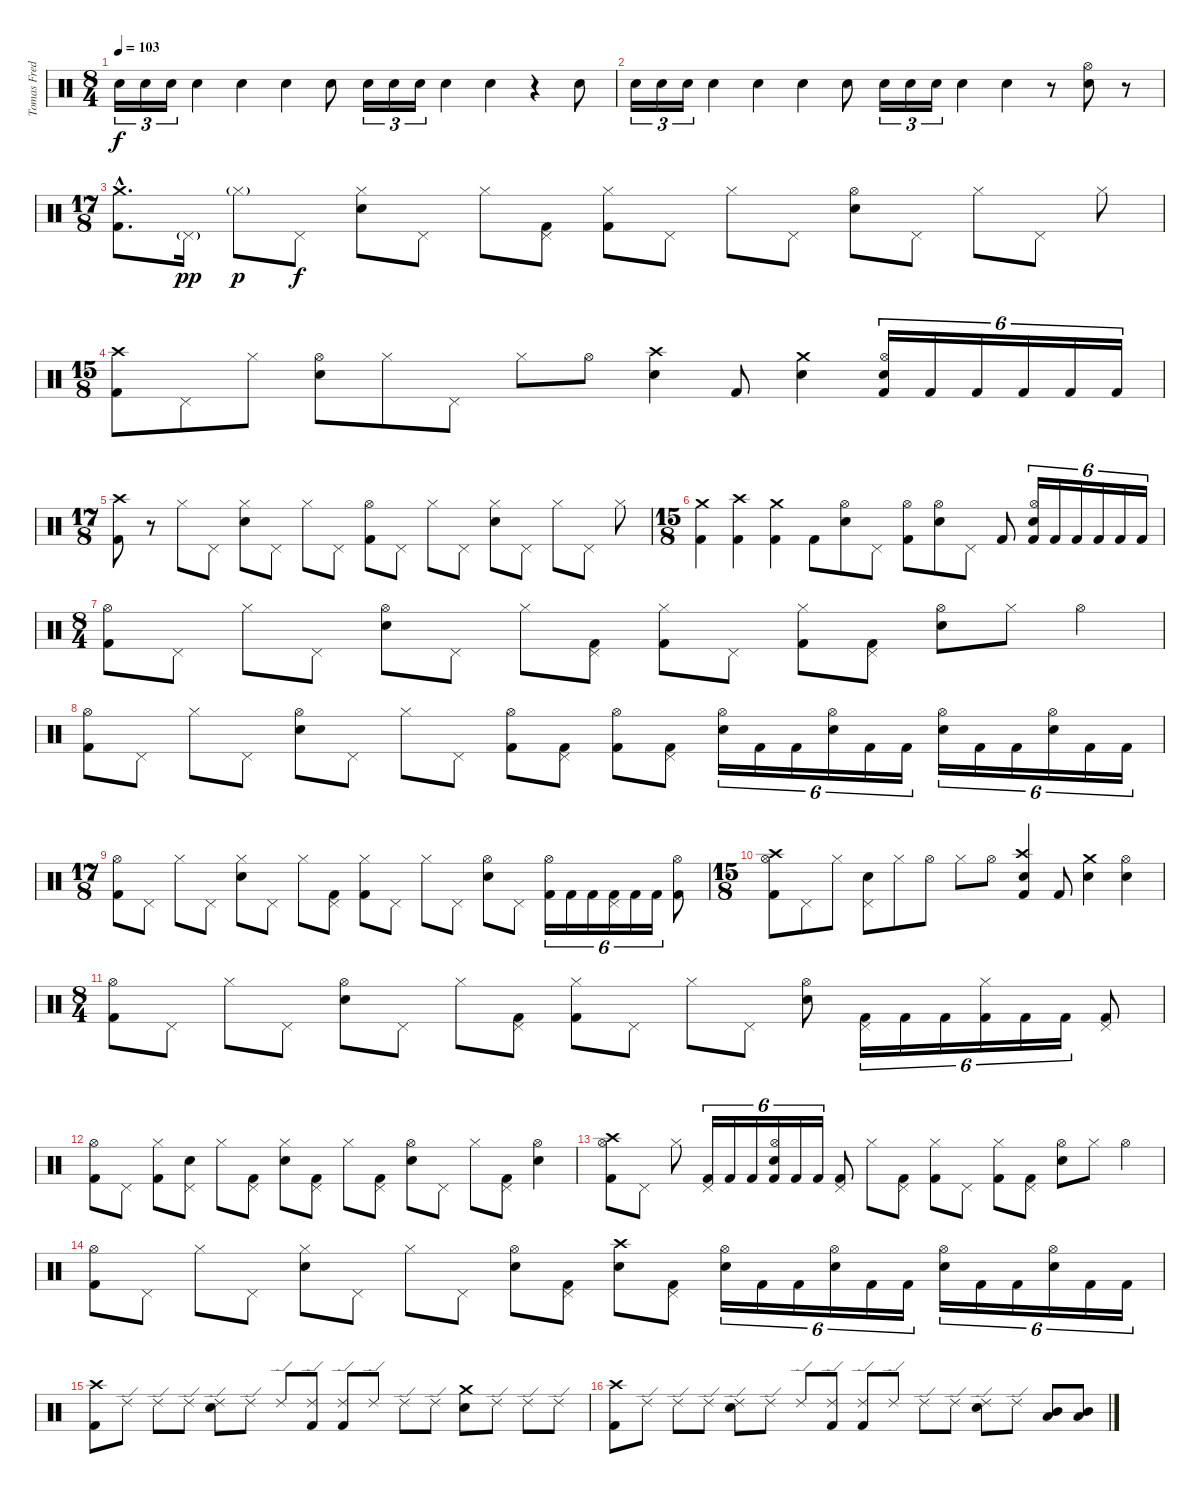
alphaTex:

\track ("Tomas Fredén - drums  " "Tomas Fred") {instrument percussion}
\staff {score}
\articulation defaults
\ts (8 4)
\tempo 103
\clef neutral
\ks c "Snare (hit) 2".16{tu (3 2) dy f} "Snare (hit) 2".16{tu (3 2)} "Snare (hit) 2".16{tu (3 2)} "Snare (hit) 2".4 "Snare (hit) 2".4 "Snare (hit) 2".4 "Snare (hit) 2".8 "Snare (hit) 2".16{tu (3 2)} "Snare (hit) 2".16{tu (3 2)} "Snare (hit) 2".16{tu (3 2)} "Snare (hit) 2".4 "Snare (hit) 2".4
r.4 "Snare (hit) 2".8 |
"Snare (hit) 2".16{tu (3 2)} "Snare (hit) 2".16{tu (3 2)} "Snare (hit) 2".16{tu (3 2)} "Snare (hit) 2".4 "Snare (hit) 2".4 "Snare (hit) 2".4 "Snare (hit) 2".8 "Snare (hit) 2".16{tu (3 2)} "Snare (hit) 2".16{tu (3 2)} "Snare (hit) 2".16{tu (3 2)} "Snare (hit) 2".4 "Snare (hit) 2".4 r.8 ("Hi-Hat (open)" "Snare (hit) 2").8 r.8 |
\ts (17 8)
("Crash medium (hit)"{hac} "Kick (hit) 2"{hac}).8{d} "Pedal Hi-Hat (hit)"{g}.16{dy pp} "Hi-Hat (closed)"{g}.8{dy p} "Pedal Hi-Hat (hit)".8{dy f} ("Hi-Hat (closed)" "Snare (hit) 2").8 "Pedal Hi-Hat (hit)".8 "Hi-Hat (closed)".8 ("Pedal Hi-Hat (hit)" "Kick (hit) 2").8 ("Hi-Hat (closed)" "Kick (hit) 2").8 "Pedal Hi-Hat (hit)".8 "Hi-Hat (closed)".8 "Pedal Hi-Hat (hit)".8 ("Hi-Hat (open)" "Snare (hit) 2").8 "Pedal Hi-Hat (hit)".8 "Hi-Hat (closed)".8 "Pedal Hi-Hat (hit)".8 "Hi-Hat (closed)".8 |
\ts (15 8)
("Crash high (hit)" "Kick (hit) 2").8 "Pedal Hi-Hat (hit)".8 "Hi-Hat (closed)".8 ("Hi-Hat (open)" "Snare (hit) 2").8 "Hi-Hat (closed)".8 "Pedal Hi-Hat (hit)".8 "Hi-Hat (closed)".8 "Hi-Hat (open)".8 ("Crash high (hit)" "Snare (hit) 2").4 "Kick (hit) 2".8 ("Crash medium (hit)" "Electric Snare (hit)").4 ("Hi-Hat (open)" "Snare (hit) 2" "Kick (hit) 2").16{tu (6 4)} "Kick (hit) 2".16{tu (6 4)} "Kick (hit) 2".16{tu (6 4)} "Kick (hit) 2".16{tu (6 4)} "Kick (hit) 2".16{tu (6 4)} "Kick (hit) 2".16{tu (6 4)} |
\ts (17 8)
("Crash high (hit)" "Kick (hit) 2").8 r.8 "Hi-Hat (closed)".8 "Pedal Hi-Hat (hit)".8 ("Hi-Hat (closed)" "Snare (hit) 2").8 "Pedal Hi-Hat (hit)".8 "Hi-Hat (closed)".8 "Pedal Hi-Hat (hit)".8 ("Hi-Hat (open)" "Kick (hit) 2").8 "Pedal Hi-Hat (hit)".8 "Hi-Hat (closed)".8 "Pedal Hi-Hat (hit)".8 ("Hi-Hat (closed)" "Snare (hit) 2").8 "Pedal Hi-Hat (hit)".8 "Hi-Hat (closed)".8 "Pedal Hi-Hat (hit)".8 "Hi-Hat (closed)".8 |
\ts (15 8)
("Crash medium (hit)" "Kick (hit) 2").4 ("Crash high (hit)" "Kick (hit) 2").4 ("Crash medium (hit)" "Kick (hit) 2").4 "Kick (hit) 2".8 ("Hi-Hat (open)" "Electric Snare (hit)").8 "Pedal Hi-Hat (hit)".8 ("Hi-Hat (open)" "Kick (hit) 2").8 ("Hi-Hat (open)" "Electric Snare (hit)").8 "Pedal Hi-Hat (hit)".8 "Kick (hit) 2".8 ("Hi-Hat (open)" "Snare (hit) 2" "Kick (hit) 2").16{tu (6 4)} "Kick (hit) 2".16{tu (6 4)} "Kick (hit) 2".16{tu (6 4)} "Kick (hit) 2".16{tu (6 4)} "Kick (hit) 2".16{tu (6 4)} "Kick (hit) 2".16{tu (6 4)} |
\ts (8 4)
("Hi-Hat (open)" "Kick (hit) 2").8 "Pedal Hi-Hat (hit)".8 "Hi-Hat (closed)".8 "Pedal Hi-Hat (hit)".8 ("Hi-Hat (open)" "Snare (hit) 2").8 "Pedal Hi-Hat (hit)".8 "Hi-Hat (closed)".8 ("Pedal Hi-Hat (hit)" "Kick (hit) 2").8 ("Hi-Hat (closed)" "Kick (hit) 2").8 "Pedal Hi-Hat (hit)".8 ("Hi-Hat (closed)" "Kick (hit) 2").8 ("Kick (hit) 2" "Pedal Hi-Hat (hit)").8 ("Hi-Hat (open)" "Snare (hit) 2").8 "Hi-Hat (closed)".8 "Hi-Hat (open)".4 |
("Hi-Hat (open)" "Kick (hit) 2").8 "Pedal Hi-Hat (hit)".8 "Hi-Hat (closed)".8 "Pedal Hi-Hat (hit)".8 ("Hi-Hat (open)" "Snare (hit) 2").8 "Pedal Hi-Hat (hit)".8 "Hi-Hat (closed)".8 "Pedal Hi-Hat (hit)".8 ("Hi-Hat (open)" "Kick (hit) 2").8 ("Pedal Hi-Hat (hit)" "Kick (hit) 2").8 ("Hi-Hat (open)" "Kick (hit) 2").8 ("Pedal Hi-Hat (hit)" "Kick (hit) 2").8 ("Hi-Hat (open)" "Snare (hit) 2").16{tu (6 4)} "Kick (hit) 2".16{tu (6 4)} "Kick (hit) 2".16{tu (6 4)} ("Hi-Hat (open)" "Snare (hit) 2").16{tu (6 4)} "Kick (hit) 2".16{tu (6 4)} "Kick (hit) 2".16{tu (6 4)} ("Hi-Hat (open)" "Snare (hit) 2").16{tu (6 4)} "Kick (hit) 2".16{tu (6 4)} "Kick (hit) 2".16{tu (6 4)} ("Hi-Hat (open)" "Snare (hit) 2").16{tu (6 4)} "Kick (hit) 2".16{tu (6 4)} "Kick (hit) 2".16{tu (6 4)} |
\ts (17 8)
("Hi-Hat (open)" "Kick (hit) 2").8 "Pedal Hi-Hat (hit)".8 "Hi-Hat (closed)".8 "Pedal Hi-Hat (hit)".8 ("Hi-Hat (closed)" "Snare (hit) 2").8 "Pedal Hi-Hat (hit)".8 "Hi-Hat (closed)".8 ("Pedal Hi-Hat (hit)" "Kick (hit) 2").8 ("Hi-Hat (closed)" "Kick (hit) 2").8 "Pedal Hi-Hat (hit)".8 "Hi-Hat (closed)".8 "Pedal Hi-Hat (hit)".8 ("Hi-Hat (open)" "Snare (hit) 2").8 "Pedal Hi-Hat (hit)".8 ("Hi-Hat (open)" "Kick (hit) 2").16{tu (6 4)} "Kick (hit) 2".16{tu (6 4)} "Kick (hit) 2".16{tu (6 4)} ("Pedal Hi-Hat (hit)" "Kick (hit) 2").16{tu (6 4)} "Kick (hit) 2".16{tu (6 4)} "Kick (hit) 2".16{tu (6 4)} ("Hi-Hat (open)" "Kick (hit) 2").8 |
\ts (15 8)
("Crash high (hit)" "Hi-Hat (open)" "Kick (hit) 2").8 "Pedal Hi-Hat (hit)".8 "Hi-Hat (closed)".8 ("Snare (hit) 2" "Pedal Hi-Hat (hit)").8 "Hi-Hat (closed)".8 "Hi-Hat (open)".8 "Hi-Hat (closed)".8 "Hi-Hat (open)".8 ("Crash high (hit)" "Electric Snare (hit)" "Kick (hit) 2").4 "Kick (hit) 2".8 ("Crash medium (hit)" "Electric Snare (hit)").4 ("Hi-Hat (open)" "Snare (hit) 2").4 |
\ts (8 4)
("Hi-Hat (open)" "Kick (hit) 2").8 "Pedal Hi-Hat (hit)".8 "Hi-Hat (closed)".8 "Pedal Hi-Hat (hit)".8 ("Hi-Hat (open)" "Snare (hit) 2").8 "Pedal Hi-Hat (hit)".8 "Hi-Hat (closed)".8 ("Pedal Hi-Hat (hit)" "Kick (hit) 2").8 ("Hi-Hat (closed)" "Kick (hit) 2").8 "Pedal Hi-Hat (hit)".8 "Hi-Hat (closed)".8 "Pedal Hi-Hat (hit)".8 ("Hi-Hat (open)" "Snare (hit) 2").8 ("Pedal Hi-Hat (hit)" "Kick (hit) 2").16{tu (6 4)} "Kick (hit) 2".16{tu (6 4)} "Kick (hit) 2".16{tu (6 4)} ("Hi-Hat (closed)" "Kick (hit) 2").16{tu (6 4)} "Kick (hit) 2".16{tu (6 4)} "Kick (hit) 2".16{tu (6 4)} ("Pedal Hi-Hat (hit)" "Kick (hit) 2").8 |
("Hi-Hat (open)" "Kick (hit) 2").8 "Pedal Hi-Hat (hit)".8 ("Hi-Hat (closed)" "Kick (hit) 2").8 ("Snare (hit) 2" "Pedal Hi-Hat (hit)").8 "Hi-Hat (closed)".8 ("Pedal Hi-Hat (hit)" "Kick (hit) 2").8 ("Hi-Hat (closed)" "Snare (hit) 2").8 ("Pedal Hi-Hat (hit)" "Kick (hit) 2").8 "Hi-Hat (closed)".8 ("Pedal Hi-Hat (hit)" "Kick (hit) 2").8 ("Hi-Hat (open)" "Snare (hit) 2").8 "Pedal Hi-Hat (hit)".8 "Hi-Hat (closed)".8 ("Kick (hit) 2" "Pedal Hi-Hat (hit)").8 ("Hi-Hat (open)" "Snare (hit) 2").4 |
("Crash high (hit)" "Hi-Hat (open)" "Kick (hit) 2").8 "Pedal Hi-Hat (hit)".8 "Hi-Hat (closed)".8 ("Pedal Hi-Hat (hit)" "Kick (hit) 2").16{tu (6 4)} "Kick (hit) 2".16{tu (6 4)} "Kick (hit) 2".16{tu (6 4)} ("Hi-Hat (open)" "Snare (hit) 2" "Kick (hit) 2").16{tu (6 4)} "Kick (hit) 2".16{tu (6 4)} "Kick (hit) 2".16{tu (6 4)} ("Pedal Hi-Hat (hit)" "Kick (hit) 2").8 "Hi-Hat (closed)".8 ("Pedal Hi-Hat (hit)" "Kick (hit) 2").8 ("Hi-Hat (closed)" "Kick (hit) 2").8 "Pedal Hi-Hat (hit)".8 ("Hi-Hat (closed)" "Kick (hit) 2").8 ("Kick (hit) 2" "Pedal Hi-Hat (hit)").8 ("Hi-Hat (open)" "Snare (hit) 2").8 "Hi-Hat (closed)".8 "Hi-Hat (open)".4 |
("Hi-Hat (open)" "Kick (hit) 2").8 "Pedal Hi-Hat (hit)".8 "Hi-Hat (closed)".8 "Pedal Hi-Hat (hit)".8 ("Hi-Hat (closed)" "Snare (hit) 2").8 "Pedal Hi-Hat (hit)".8 "Hi-Hat (closed)".8 "Pedal Hi-Hat (hit)".8 ("Hi-Hat (open)" "Snare (hit) 2").8 ("Pedal Hi-Hat (hit)" "Kick (hit) 2").8 ("Crash high (hit)" "Snare (hit) 2").8 ("Pedal Hi-Hat (hit)" "Kick (hit) 2").8 ("Hi-Hat (open)" "Snare (hit) 2").16{tu (6 4)} "Kick (hit) 2".16{tu (6 4)} "Kick (hit) 2".16{tu (6 4)} ("Hi-Hat (open)" "Snare (hit) 2").16{tu (6 4)} "Kick (hit) 2".16{tu (6 4)} "Kick (hit) 2".16{tu (6 4)} ("Hi-Hat (open)" "Snare (hit) 2").16{tu (6 4)} "Kick (hit) 2".16{tu (6 4)} "Kick (hit) 2".16{tu (6 4)} ("Hi-Hat (open)" "Snare (hit) 2").16{tu (6 4)} "Kick (hit) 2".16{tu (6 4)} "Kick (hit) 2".16{tu (6 4)} |
("Crash high (hit)" "Kick (hit) 2").8 "Ride (edge) 2".8 "Ride (edge) 2".8 "Ride (edge) 2".8 ("Ride (edge) 2" "Snare (hit) 2").8 "Ride (edge) 2".8 "Ride (edge) 2".8 ("Ride (edge) 2" "Kick (hit) 2").8 ("Ride (edge) 2" "Kick (hit) 2").8 "Ride (edge) 2".8 "Ride (edge) 2".8 "Ride (edge) 2".8 ("Crash medium (hit)" "Snare (hit) 2").8 "Ride (edge) 2".8 "Ride (edge) 2".8 "Ride (edge) 2".8 |
("Crash high (hit)" "Kick (hit) 2").8 "Ride (edge) 2".8 "Ride (edge) 2".8 "Ride (edge) 2".8 ("Ride (edge) 2" "Snare (hit) 2").8 "Ride (edge) 2".8 "Ride (edge) 2".8 ("Ride (edge) 2" "Kick (hit) 2").8 ("Ride (edge) 2" "Kick (hit) 2").8 "Ride (edge) 2".8 "Ride (edge) 2".8 "Ride (edge) 2".8 ("Ride (edge) 2" "Snare (hit) 2").8 "Ride (edge) 2".8 ("Mid Tom (hit)" "Low Tom (hit)").8 ("Mid Tom (hit)" "Low Tom (hit)").8
